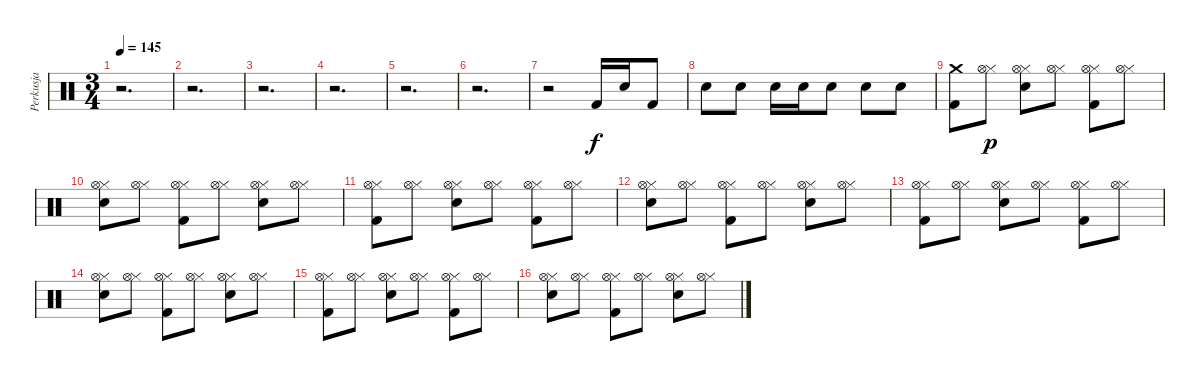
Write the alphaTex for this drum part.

\track ("Perkusja" "Perkusja") {instrument percussion}
\staff {score}
\articulation defaults
\ts (3 4)
\tempo 145
\clef neutral
\ks c
r.2{d dy f} |
r.2{d} |
r.2{d} |
r.2{d} |
r.2{d} |
r.2{d} |
r.2 "Kick (hit) 2".16 "Electric Snare (hit)".16 "Kick (hit) 2".8 |
"Electric Snare (hit)".8 "Electric Snare (hit)".8 "Electric Snare (hit)".16 "Electric Snare (hit)".16 "Electric Snare (hit)".8 "Electric Snare (hit)".8 "Electric Snare (hit)".8 |
("Kick (hit) 2" "Crash medium (hit)").8 ("Hi-Hat (closed)" "Hi-Hat (open)").8{dy p} ("Electric Snare (hit)" "Hi-Hat (closed)" "Hi-Hat (open)").8 ("Hi-Hat (closed)" "Hi-Hat (open)").8 ("Kick (hit) 2" "Hi-Hat (closed)" "Hi-Hat (open)").8 ("Hi-Hat (closed)" "Hi-Hat (open)").8 |
("Electric Snare (hit)" "Hi-Hat (closed)" "Hi-Hat (open)").8 ("Hi-Hat (closed)" "Hi-Hat (open)").8 ("Kick (hit) 2" "Hi-Hat (closed)" "Hi-Hat (open)").8 ("Hi-Hat (closed)" "Hi-Hat (open)").8 ("Electric Snare (hit)" "Hi-Hat (closed)" "Hi-Hat (open)").8 ("Hi-Hat (closed)" "Hi-Hat (open)").8 |
("Kick (hit) 2" "Hi-Hat (closed)" "Hi-Hat (open)").8 ("Hi-Hat (closed)" "Hi-Hat (open)").8 ("Electric Snare (hit)" "Hi-Hat (closed)" "Hi-Hat (open)").8 ("Hi-Hat (closed)" "Hi-Hat (open)").8 ("Kick (hit) 2" "Hi-Hat (closed)" "Hi-Hat (open)").8 ("Hi-Hat (closed)" "Hi-Hat (open)").8 |
("Electric Snare (hit)" "Hi-Hat (closed)" "Hi-Hat (open)").8 ("Hi-Hat (closed)" "Hi-Hat (open)").8 ("Kick (hit) 2" "Hi-Hat (closed)" "Hi-Hat (open)").8 ("Hi-Hat (closed)" "Hi-Hat (open)").8 ("Electric Snare (hit)" "Hi-Hat (closed)" "Hi-Hat (open)").8 ("Hi-Hat (closed)" "Hi-Hat (open)").8 |
("Kick (hit) 2" "Hi-Hat (closed)" "Hi-Hat (open)").8 ("Hi-Hat (closed)" "Hi-Hat (open)").8 ("Electric Snare (hit)" "Hi-Hat (closed)" "Hi-Hat (open)").8 ("Hi-Hat (closed)" "Hi-Hat (open)").8 ("Kick (hit) 2" "Hi-Hat (closed)" "Hi-Hat (open)").8 ("Hi-Hat (closed)" "Hi-Hat (open)").8 |
("Electric Snare (hit)" "Hi-Hat (closed)" "Hi-Hat (open)").8 ("Hi-Hat (closed)" "Hi-Hat (open)").8 ("Kick (hit) 2" "Hi-Hat (closed)" "Hi-Hat (open)").8 ("Hi-Hat (closed)" "Hi-Hat (open)").8 ("Electric Snare (hit)" "Hi-Hat (closed)" "Hi-Hat (open)").8 ("Hi-Hat (closed)" "Hi-Hat (open)").8 |
("Kick (hit) 2" "Hi-Hat (closed)" "Hi-Hat (open)").8 ("Hi-Hat (closed)" "Hi-Hat (open)").8 ("Electric Snare (hit)" "Hi-Hat (closed)" "Hi-Hat (open)").8 ("Hi-Hat (closed)" "Hi-Hat (open)").8 ("Kick (hit) 2" "Hi-Hat (closed)" "Hi-Hat (open)").8 ("Hi-Hat (closed)" "Hi-Hat (open)").8 |
("Electric Snare (hit)" "Hi-Hat (closed)" "Hi-Hat (open)").8 ("Hi-Hat (closed)" "Hi-Hat (open)").8 ("Kick (hit) 2" "Hi-Hat (closed)" "Hi-Hat (open)").8 ("Hi-Hat (closed)" "Hi-Hat (open)").8 ("Electric Snare (hit)" "Hi-Hat (closed)" "Hi-Hat (open)").8 ("Hi-Hat (closed)" "Hi-Hat (open)").8
